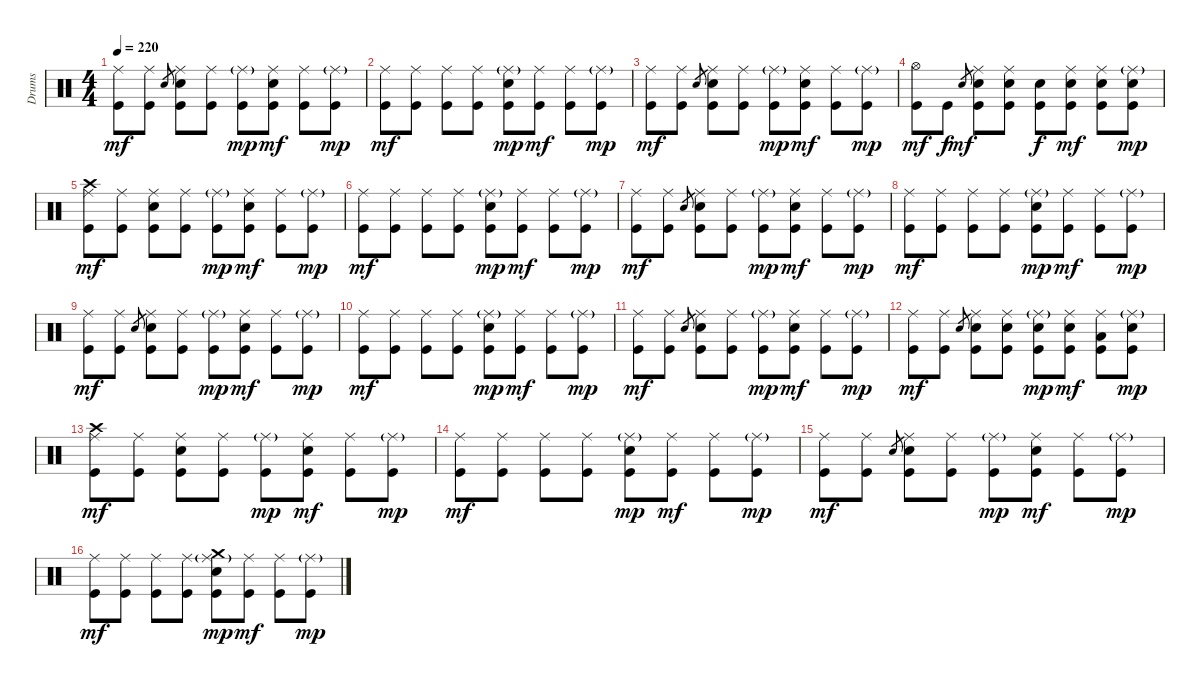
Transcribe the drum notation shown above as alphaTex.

\track ("Drums" "Drums") {instrument percussion}
\staff {score}
\articulation defaults
\ts (4 4)
\tempo 220
\clef neutral
\ks c
("Ride (middle)" "Kick (hit)").8{dy mf} ("Ride (middle)" "Kick (hit)").8 "Electric Snare (hit)".8{gr} ("Ride (middle)" "Electric Snare (hit)" "Kick (hit)").8 ("Ride (middle)" "Kick (hit)").8 ("Ride (middle)"{g} "Kick (hit)").8{dy mp} ("Ride (middle)" "Electric Snare (hit)" "Kick (hit)").8{dy mf} ("Ride (middle)" "Kick (hit)").8 ("Ride (middle)"{g} "Kick (hit)").8{dy mp} |
("Ride (middle)" "Kick (hit)").8{dy mf} ("Ride (middle)" "Kick (hit)").8 ("Ride (middle)" "Kick (hit)").8 ("Ride (middle)" "Kick (hit)").8 ("Ride (middle)"{g} "Electric Snare (hit)" "Kick (hit)").8{dy mp} ("Ride (middle)" "Kick (hit)").8{dy mf} ("Ride (middle)" "Kick (hit)").8 ("Ride (middle)"{g} "Kick (hit)").8{dy mp} |
("Ride (middle)" "Kick (hit)").8{dy mf} ("Ride (middle)" "Kick (hit)").8 "Electric Snare (hit)".8{gr} ("Ride (middle)" "Electric Snare (hit)" "Kick (hit)").8 ("Ride (middle)" "Kick (hit)").8 ("Ride (middle)"{g} "Kick (hit)").8{dy mp} ("Ride (middle)" "Electric Snare (hit)" "Kick (hit)").8{dy mf} ("Ride (middle)" "Kick (hit)").8 ("Ride (middle)"{g} "Kick (hit)").8{dy mp} |
("Hi-Hat (open)" "Kick (hit)").8{dy mf} "Kick (hit)".8{dy f} "Electric Snare (hit)".8{gr dy mf} ("Ride (middle)" "Electric Snare (hit)" "Kick (hit)").8 ("Ride (middle)" "Electric Snare (hit)" "Kick (hit)").8 ("Electric Snare (hit)" "Kick (hit)").8{dy f} ("Ride (middle)" "Electric Snare (hit)" "Kick (hit)").8{dy mf} ("Ride (middle)" "Electric Snare (hit)" "Kick (hit)").8 ("Ride (middle)"{g} "Electric Snare (hit)" "Kick (hit)").8{dy mp} |
("Crash high (hit)" "Ride (middle)" "Kick (hit)").8{dy mf} ("Ride (middle)" "Kick (hit)").8 ("Ride (middle)" "Electric Snare (hit)" "Kick (hit)").8 ("Ride (middle)" "Kick (hit)").8 ("Ride (middle)"{g} "Kick (hit)").8{dy mp} ("Ride (middle)" "Electric Snare (hit)" "Kick (hit)").8{dy mf} ("Ride (middle)" "Kick (hit)").8 ("Ride (middle)"{g} "Kick (hit)").8{dy mp} |
("Ride (middle)" "Kick (hit)").8{dy mf} ("Ride (middle)" "Kick (hit)").8 ("Ride (middle)" "Kick (hit)").8 ("Ride (middle)" "Kick (hit)").8 ("Ride (middle)"{g} "Electric Snare (hit)" "Kick (hit)").8{dy mp} ("Ride (middle)" "Kick (hit)").8{dy mf} ("Ride (middle)" "Kick (hit)").8 ("Ride (middle)"{g} "Kick (hit)").8{dy mp} |
("Ride (middle)" "Kick (hit)").8{dy mf} ("Ride (middle)" "Kick (hit)").8 "Electric Snare (hit)".8{gr} ("Ride (middle)" "Electric Snare (hit)" "Kick (hit)").8 ("Ride (middle)" "Kick (hit)").8 ("Ride (middle)"{g} "Kick (hit)").8{dy mp} ("Ride (middle)" "Electric Snare (hit)" "Kick (hit)").8{dy mf} ("Ride (middle)" "Kick (hit)").8 ("Ride (middle)"{g} "Kick (hit)").8{dy mp} |
("Ride (middle)" "Kick (hit)").8{dy mf} ("Ride (middle)" "Kick (hit)").8 ("Ride (middle)" "Kick (hit)").8 ("Ride (middle)" "Kick (hit)").8 ("Ride (middle)"{g} "Electric Snare (hit)" "Kick (hit)").8{dy mp} ("Ride (middle)" "Kick (hit)").8{dy mf} ("Ride (middle)" "Kick (hit)").8 ("Ride (middle)"{g} "Kick (hit)").8{dy mp} |
("Ride (middle)" "Kick (hit)").8{dy mf} ("Ride (middle)" "Kick (hit)").8 "Electric Snare (hit)".8{gr} ("Ride (middle)" "Electric Snare (hit)" "Kick (hit)").8 ("Ride (middle)" "Kick (hit)").8 ("Ride (middle)"{g} "Kick (hit)").8{dy mp} ("Ride (middle)" "Electric Snare (hit)" "Kick (hit)").8{dy mf} ("Ride (middle)" "Kick (hit)").8 ("Ride (middle)"{g} "Kick (hit)").8{dy mp} |
("Ride (middle)" "Kick (hit)").8{dy mf} ("Ride (middle)" "Kick (hit)").8 ("Ride (middle)" "Kick (hit)").8 ("Ride (middle)" "Kick (hit)").8 ("Ride (middle)"{g} "Electric Snare (hit)" "Kick (hit)").8{dy mp} ("Ride (middle)" "Kick (hit)").8{dy mf} ("Ride (middle)" "Kick (hit)").8 ("Ride (middle)"{g} "Kick (hit)").8{dy mp} |
("Ride (middle)" "Kick (hit)").8{dy mf} ("Ride (middle)" "Kick (hit)").8 "Electric Snare (hit)".8{gr} ("Ride (middle)" "Electric Snare (hit)" "Kick (hit)").8 ("Ride (middle)" "Kick (hit)").8 ("Ride (middle)"{g} "Kick (hit)").8{dy mp} ("Ride (middle)" "Electric Snare (hit)" "Kick (hit)").8{dy mf} ("Ride (middle)" "Kick (hit)").8 ("Ride (middle)"{g} "Kick (hit)").8{dy mp} |
("Ride (middle)" "Kick (hit)").8{dy mf} ("Ride (middle)" "Kick (hit)").8 "Electric Snare (hit)".8{gr} ("Ride (middle)" "Electric Snare (hit)" "Kick (hit)").8 ("Ride (middle)" "Electric Snare (hit)" "Kick (hit)").8 ("Ride (middle)"{g} "Electric Snare (hit)" "Kick (hit)").8{dy mp} ("Ride (middle)" "Electric Snare (hit)" "Kick (hit)").8{dy mf} ("Ride (middle)" "Low Tom (hit)" "Kick (hit)").8 ("Ride (middle)"{g} "Electric Snare (hit)" "Kick (hit)").8{dy mp} |
("Crash high (hit)" "Ride (middle)" "Kick (hit)").8{dy mf} ("Ride (middle)" "Kick (hit)").8 ("Ride (middle)" "Electric Snare (hit)" "Kick (hit)").8 ("Ride (middle)" "Kick (hit)").8 ("Ride (middle)"{g} "Kick (hit)").8{dy mp} ("Ride (middle)" "Electric Snare (hit)" "Kick (hit)").8{dy mf} ("Ride (middle)" "Kick (hit)").8 ("Ride (middle)"{g} "Kick (hit)").8{dy mp} |
("Ride (middle)" "Kick (hit)").8{dy mf} ("Ride (middle)" "Kick (hit)").8 ("Ride (middle)" "Kick (hit)").8 ("Ride (middle)" "Kick (hit)").8 ("Ride (middle)"{g} "Electric Snare (hit)" "Kick (hit)").8{dy mp} ("Ride (middle)" "Kick (hit)").8{dy mf} ("Ride (middle)" "Kick (hit)").8 ("Ride (middle)"{g} "Kick (hit)").8{dy mp} |
("Ride (middle)" "Kick (hit)").8{dy mf} ("Ride (middle)" "Kick (hit)").8 "Electric Snare (hit)".8{gr} ("Ride (middle)" "Electric Snare (hit)" "Kick (hit)").8 ("Ride (middle)" "Kick (hit)").8 ("Ride (middle)"{g} "Kick (hit)").8{dy mp} ("Ride (middle)" "Electric Snare (hit)" "Kick (hit)").8{dy mf} ("Ride (middle)" "Kick (hit)").8 ("Ride (middle)"{g} "Kick (hit)").8{dy mp} |
("Ride (middle)" "Kick (hit)").8{dy mf} ("Ride (middle)" "Kick (hit)").8 ("Ride (middle)" "Kick (hit)").8 ("Ride (middle)" "Kick (hit)").8 ("Crash medium (hit)" "Ride (middle)"{g} "Electric Snare (hit)" "Kick (hit)").8{dy mp} ("Ride (middle)" "Kick (hit)").8{dy mf} ("Ride (middle)" "Kick (hit)").8 ("Ride (middle)"{g} "Kick (hit)").8{dy mp}
